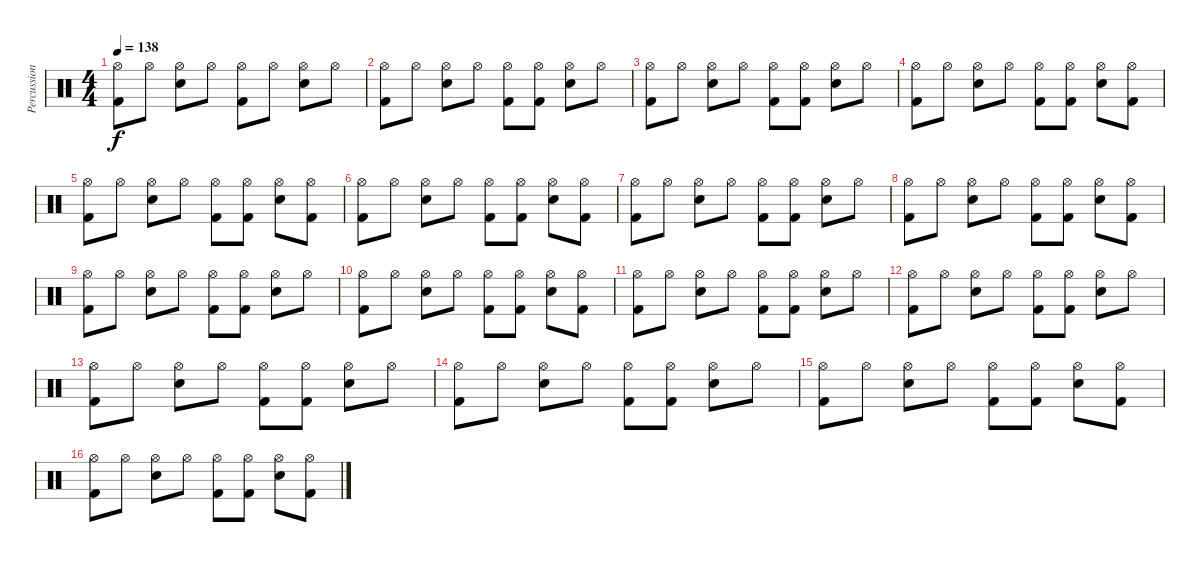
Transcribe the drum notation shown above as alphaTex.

\track ("Percussion" "Percussion") {instrument percussion}
\staff {score}
\articulation defaults
\ts (4 4)
\tempo 138
\clef neutral
\ks c
("Hi-Hat (open)" "Kick (hit) 2").8{dy f} "Hi-Hat (open)".8 ("Hi-Hat (open)" "Snare (hit) 2").8 "Hi-Hat (open)".8 ("Hi-Hat (open)" "Kick (hit) 2").8 "Hi-Hat (open)".8 ("Hi-Hat (open)" "Snare (hit) 2").8 "Hi-Hat (open)".8 |
("Hi-Hat (open)" "Kick (hit) 2").8 "Hi-Hat (open)".8 ("Hi-Hat (open)" "Snare (hit) 2").8 "Hi-Hat (open)".8 ("Hi-Hat (open)" "Kick (hit) 2").8 ("Hi-Hat (open)" "Kick (hit) 2").8 ("Hi-Hat (open)" "Snare (hit) 2").8 "Hi-Hat (open)".8 |
("Hi-Hat (open)" "Kick (hit) 2").8 "Hi-Hat (open)".8 ("Hi-Hat (open)" "Snare (hit) 2").8 "Hi-Hat (open)".8 ("Hi-Hat (open)" "Kick (hit) 2").8 ("Hi-Hat (open)" "Kick (hit) 2").8 ("Hi-Hat (open)" "Snare (hit) 2").8 "Hi-Hat (open)".8 |
("Hi-Hat (open)" "Kick (hit) 2").8 "Hi-Hat (open)".8 ("Hi-Hat (open)" "Snare (hit) 2").8 "Hi-Hat (open)".8 ("Hi-Hat (open)" "Kick (hit) 2").8 ("Hi-Hat (open)" "Kick (hit) 2").8 ("Hi-Hat (open)" "Snare (hit) 2").8 ("Hi-Hat (open)" "Kick (hit) 2").8 |
("Hi-Hat (open)" "Kick (hit) 2").8 "Hi-Hat (open)".8 ("Hi-Hat (open)" "Snare (hit) 2").8 "Hi-Hat (open)".8 ("Hi-Hat (open)" "Kick (hit) 2").8 ("Hi-Hat (open)" "Kick (hit) 2").8 ("Hi-Hat (open)" "Snare (hit) 2").8 ("Hi-Hat (open)" "Kick (hit) 2").8 |
("Hi-Hat (open)" "Kick (hit) 2").8 "Hi-Hat (open)".8 ("Hi-Hat (open)" "Snare (hit) 2").8 "Hi-Hat (open)".8 ("Hi-Hat (open)" "Kick (hit) 2").8 ("Hi-Hat (open)" "Kick (hit) 2").8 ("Hi-Hat (open)" "Snare (hit) 2").8 ("Hi-Hat (open)" "Kick (hit) 2").8 |
("Hi-Hat (open)" "Kick (hit) 2").8 "Hi-Hat (open)".8 ("Hi-Hat (open)" "Snare (hit) 2").8 "Hi-Hat (open)".8 ("Hi-Hat (open)" "Kick (hit) 2").8 ("Hi-Hat (open)" "Kick (hit) 2").8 ("Hi-Hat (open)" "Snare (hit) 2").8 "Hi-Hat (open)".8 |
("Hi-Hat (open)" "Kick (hit) 2").8 "Hi-Hat (open)".8 ("Hi-Hat (open)" "Snare (hit) 2").8 "Hi-Hat (open)".8 ("Hi-Hat (open)" "Kick (hit) 2").8 ("Hi-Hat (open)" "Kick (hit) 2").8 ("Hi-Hat (open)" "Snare (hit) 2").8 ("Hi-Hat (open)" "Kick (hit) 2").8 |
("Hi-Hat (open)" "Kick (hit) 2").8 "Hi-Hat (open)".8 ("Hi-Hat (open)" "Snare (hit) 2").8 "Hi-Hat (open)".8 ("Hi-Hat (open)" "Kick (hit) 2").8 ("Hi-Hat (open)" "Kick (hit) 2").8 ("Hi-Hat (open)" "Snare (hit) 2").8 "Hi-Hat (open)".8 |
("Hi-Hat (open)" "Kick (hit) 2").8 "Hi-Hat (open)".8 ("Hi-Hat (open)" "Snare (hit) 2").8 "Hi-Hat (open)".8 ("Hi-Hat (open)" "Kick (hit) 2").8 ("Hi-Hat (open)" "Kick (hit) 2").8 ("Hi-Hat (open)" "Snare (hit) 2").8 ("Hi-Hat (open)" "Kick (hit) 2").8 |
("Hi-Hat (open)" "Kick (hit) 2").8 "Hi-Hat (open)".8 ("Hi-Hat (open)" "Snare (hit) 2").8 "Hi-Hat (open)".8 ("Hi-Hat (open)" "Kick (hit) 2").8 ("Hi-Hat (open)" "Kick (hit) 2").8 ("Hi-Hat (open)" "Snare (hit) 2").8 "Hi-Hat (open)".8 |
("Hi-Hat (open)" "Kick (hit) 2").8 "Hi-Hat (open)".8 ("Hi-Hat (open)" "Snare (hit) 2").8 "Hi-Hat (open)".8 ("Hi-Hat (open)" "Kick (hit) 2").8 ("Hi-Hat (open)" "Kick (hit) 2").8 ("Hi-Hat (open)" "Snare (hit) 2").8 "Hi-Hat (open)".8 |
("Hi-Hat (open)" "Kick (hit) 2").8 "Hi-Hat (open)".8 ("Hi-Hat (open)" "Snare (hit) 2").8 "Hi-Hat (open)".8 ("Hi-Hat (open)" "Kick (hit) 2").8 ("Hi-Hat (open)" "Kick (hit) 2").8 ("Hi-Hat (open)" "Snare (hit) 2").8 "Hi-Hat (open)".8 |
("Hi-Hat (open)" "Kick (hit) 2").8 "Hi-Hat (open)".8 ("Hi-Hat (open)" "Snare (hit) 2").8 "Hi-Hat (open)".8 ("Hi-Hat (open)" "Kick (hit) 2").8 ("Hi-Hat (open)" "Kick (hit) 2").8 ("Hi-Hat (open)" "Snare (hit) 2").8 "Hi-Hat (open)".8 |
("Hi-Hat (open)" "Kick (hit) 2").8 "Hi-Hat (open)".8 ("Hi-Hat (open)" "Snare (hit) 2").8 "Hi-Hat (open)".8 ("Hi-Hat (open)" "Kick (hit) 2").8 ("Hi-Hat (open)" "Kick (hit) 2").8 ("Hi-Hat (open)" "Snare (hit) 2").8 ("Hi-Hat (open)" "Kick (hit) 2").8 |
("Hi-Hat (open)" "Kick (hit) 2").8 "Hi-Hat (open)".8 ("Hi-Hat (open)" "Snare (hit) 2").8 "Hi-Hat (open)".8 ("Hi-Hat (open)" "Kick (hit) 2").8 ("Hi-Hat (open)" "Kick (hit) 2").8 ("Hi-Hat (open)" "Snare (hit) 2").8 ("Hi-Hat (open)" "Kick (hit) 2").8
